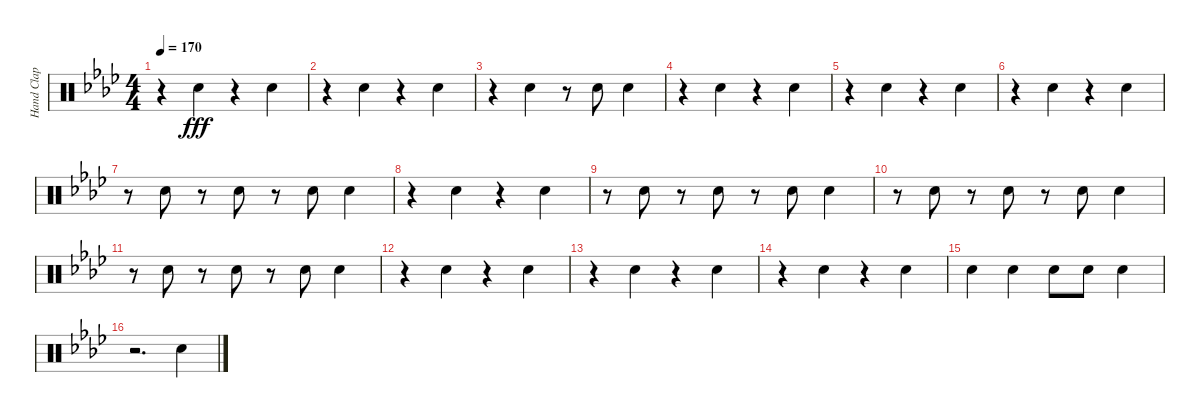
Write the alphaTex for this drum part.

\track ("Hand Clap" "Hand Clap") {instrument percussion}
\staff {score}
\articulation defaults
\ts (4 4)
\tempo 170
\clef neutral
\ks ab
r.4{dy fff} "Hand Clap (hit)".4 r.4 "Hand Clap (hit)".4 |
r.4 "Hand Clap (hit)".4 r.4 "Hand Clap (hit)".4 |
r.4 "Hand Clap (hit)".4 r.8 "Hand Clap (hit)".8 "Hand Clap (hit)".4 |
r.4 "Hand Clap (hit)".4 r.4 "Hand Clap (hit)".4 |
r.4 "Hand Clap (hit)".4 r.4 "Hand Clap (hit)".4 |
r.4 "Hand Clap (hit)".4 r.4 "Hand Clap (hit)".4 |
r.8 "Hand Clap (hit)".8 r.8 "Hand Clap (hit)".8 r.8 "Hand Clap (hit)".8 "Hand Clap (hit)".4 |
r.4 "Hand Clap (hit)".4 r.4 "Hand Clap (hit)".4 |
r.8 "Hand Clap (hit)".8 r.8 "Hand Clap (hit)".8 r.8 "Hand Clap (hit)".8 "Hand Clap (hit)".4 |
r.8 "Hand Clap (hit)".8 r.8 "Hand Clap (hit)".8 r.8 "Hand Clap (hit)".8 "Hand Clap (hit)".4 |
r.8 "Hand Clap (hit)".8 r.8 "Hand Clap (hit)".8 r.8 "Hand Clap (hit)".8 "Hand Clap (hit)".4 |
r.4 "Hand Clap (hit)".4 r.4 "Hand Clap (hit)".4 |
r.4 "Hand Clap (hit)".4 r.4 "Hand Clap (hit)".4 |
r.4 "Hand Clap (hit)".4 r.4 "Hand Clap (hit)".4 |
"Hand Clap (hit)".4 "Hand Clap (hit)".4 "Hand Clap (hit)".8 "Hand Clap (hit)".8 "Hand Clap (hit)".4 |
r.2{d} "Hand Clap (hit)".4
